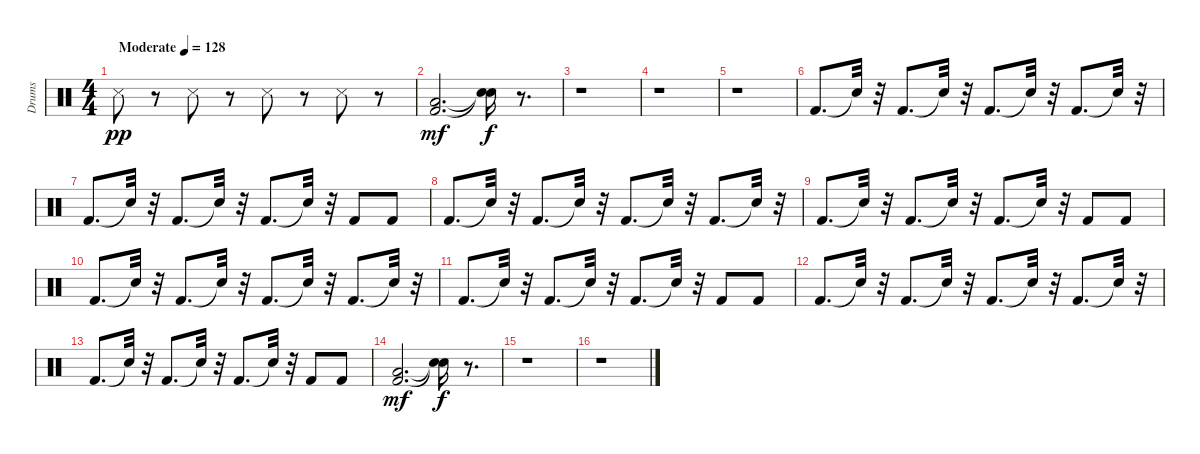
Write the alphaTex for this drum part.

\track ("Drums" "Drums") {instrument percussion}
\staff {score}
\articulation defaults
\ts (4 4)
\tempo (128 "Moderate")
\clef neutral
\ks c "Snare (side stick) 3".8{dy pp}
r.8 "Snare (side stick) 3".8 r.8 "Snare (side stick) 3".8 r.8 "Snare (side stick) 3".8 r.8 |
("Kick (hit) 2" "Low Floor Tom (hit)").2{d dy mf} ("Snare (hit)"{t} "Snare (hit)"{t}).16{dy f} r.8{d} |
r.1 |
r.1 |
r.1 |
"Kick (hit) 2".8{d} "Snare (hit)"{t}.32 r.32 "Kick (hit) 2".8{d} "Snare (hit)"{t}.32 r.32 "Kick (hit) 2".8{d} "Snare (hit)"{t}.32 r.32 "Kick (hit) 2".8{d} "Snare (hit)"{t}.32 r.32 |
"Kick (hit) 2".8{d} "Snare (hit)"{t}.32 r.32 "Kick (hit) 2".8{d} "Snare (hit)"{t}.32 r.32 "Kick (hit) 2".8{d} "Snare (hit)"{t}.32 r.32 "Kick (hit) 2".8 "Kick (hit) 2".8 |
"Kick (hit) 2".8{d} "Snare (hit)"{t}.32 r.32 "Kick (hit) 2".8{d} "Snare (hit)"{t}.32 r.32 "Kick (hit) 2".8{d} "Snare (hit)"{t}.32 r.32 "Kick (hit) 2".8{d} "Snare (hit)"{t}.32 r.32 |
"Kick (hit) 2".8{d} "Snare (hit)"{t}.32 r.32 "Kick (hit) 2".8{d} "Snare (hit)"{t}.32 r.32 "Kick (hit) 2".8{d} "Snare (hit)"{t}.32 r.32 "Kick (hit) 2".8 "Kick (hit) 2".8 |
"Kick (hit) 2".8{d} "Snare (hit)"{t}.32 r.32 "Kick (hit) 2".8{d} "Snare (hit)"{t}.32 r.32 "Kick (hit) 2".8{d} "Snare (hit)"{t}.32 r.32 "Kick (hit) 2".8{d} "Snare (hit)"{t}.32 r.32 |
"Kick (hit) 2".8{d} "Snare (hit)"{t}.32 r.32 "Kick (hit) 2".8{d} "Snare (hit)"{t}.32 r.32 "Kick (hit) 2".8{d} "Snare (hit)"{t}.32 r.32 "Kick (hit) 2".8 "Kick (hit) 2".8 |
"Kick (hit) 2".8{d} "Snare (hit)"{t}.32 r.32 "Kick (hit) 2".8{d} "Snare (hit)"{t}.32 r.32 "Kick (hit) 2".8{d} "Snare (hit)"{t}.32 r.32 "Kick (hit) 2".8{d} "Snare (hit)"{t}.32 r.32 |
"Kick (hit) 2".8{d} "Snare (hit)"{t}.32 r.32 "Kick (hit) 2".8{d} "Snare (hit)"{t}.32 r.32 "Kick (hit) 2".8{d} "Snare (hit)"{t}.32 r.32 "Kick (hit) 2".8 "Kick (hit) 2".8 |
("Low Floor Tom (hit)" "Kick (hit) 2").2{d dy mf} ("Snare (hit)"{t} "Snare (hit)"{t}).16{dy f} r.8{d} |
r.1 |
r.1
